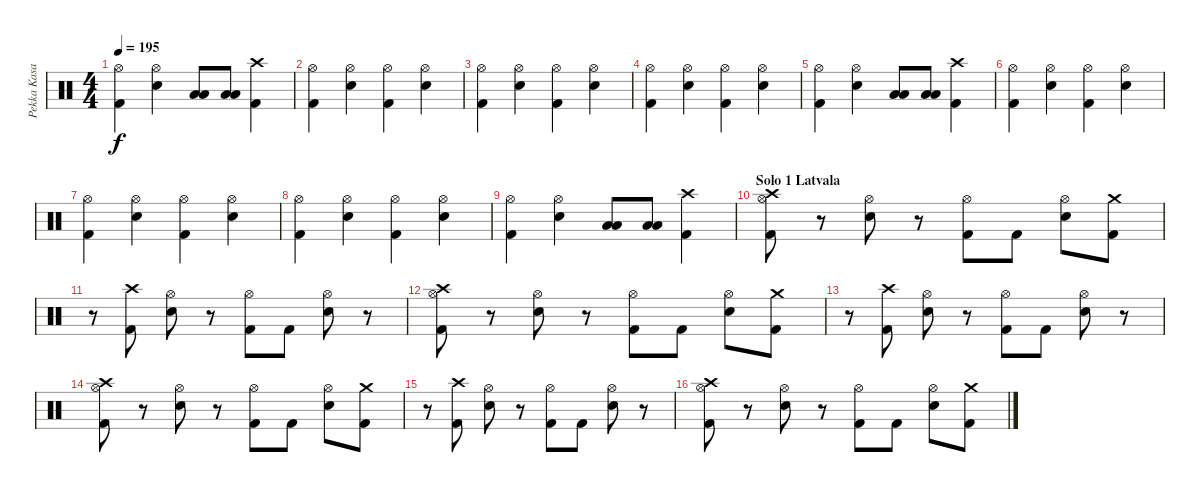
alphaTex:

\track ("Pekka Kasari" "Pekka Kasa") {instrument percussion}
\staff {score}
\articulation defaults
\ts (4 4)
\tempo 195
\clef neutral
\ks c
("Kick (hit) 2" "Hi-Hat (open)").4{dy f} ("Hi-Hat (open)" "Snare (hit) 2").4 ("Low Tom (hit)" "Low Floor Tom (hit)").8 ("Low Tom (hit)" "Low Floor Tom (hit)").8 ("Crash high (hit)" "Kick (hit) 2").4 |
("Kick (hit) 2" "Hi-Hat (open)").4 ("Hi-Hat (open)" "Snare (hit) 2").4 ("Hi-Hat (open)" "Kick (hit) 2").4 ("Hi-Hat (open)" "Snare (hit) 2").4 |
("Kick (hit) 2" "Hi-Hat (open)").4 ("Hi-Hat (open)" "Snare (hit) 2").4 ("Hi-Hat (open)" "Kick (hit) 2").4 ("Hi-Hat (open)" "Snare (hit) 2").4 |
("Kick (hit) 2" "Hi-Hat (open)").4 ("Hi-Hat (open)" "Snare (hit) 2").4 ("Hi-Hat (open)" "Kick (hit) 2").4 ("Hi-Hat (open)" "Snare (hit) 2").4 |
("Kick (hit) 2" "Hi-Hat (open)").4 ("Hi-Hat (open)" "Snare (hit) 2").4 ("Low Tom (hit)" "Low Floor Tom (hit)").8 ("Low Tom (hit)" "Low Floor Tom (hit)").8 ("Crash high (hit)" "Kick (hit) 2").4 |
("Kick (hit) 2" "Hi-Hat (open)").4 ("Hi-Hat (open)" "Snare (hit) 2").4 ("Hi-Hat (open)" "Kick (hit) 2").4 ("Hi-Hat (open)" "Snare (hit) 2").4 |
("Kick (hit) 2" "Hi-Hat (open)").4 ("Hi-Hat (open)" "Snare (hit) 2").4 ("Hi-Hat (open)" "Kick (hit) 2").4 ("Hi-Hat (open)" "Snare (hit) 2").4 |
("Kick (hit) 2" "Hi-Hat (open)").4 ("Hi-Hat (open)" "Snare (hit) 2").4 ("Hi-Hat (open)" "Kick (hit) 2").4 ("Hi-Hat (open)" "Snare (hit) 2").4 |
("Kick (hit) 2" "Hi-Hat (open)").4 ("Hi-Hat (open)" "Snare (hit) 2").4 ("Low Tom (hit)" "Low Floor Tom (hit)").8 ("Low Tom (hit)" "Low Floor Tom (hit)").8 ("Crash high (hit)" "Kick (hit) 2").4 |
\section ("" "Solo 1 Latvala")
("Kick (hit) 2" "Crash high (hit)" "Hi-Hat (open)").8 r.8 ("Snare (hit) 2" "Hi-Hat (open)").8 r.8 ("Kick (hit) 2" "Hi-Hat (open)").8 "Kick (hit) 2".8 ("Snare (hit) 2" "Hi-Hat (open)").8 ("Kick (hit) 2" "Crash medium (hit)").8 |
r.8 ("Kick (hit) 2" "Crash high (hit)").8 ("Snare (hit) 2" "Hi-Hat (open)").8 r.8 ("Kick (hit) 2" "Hi-Hat (open)").8 "Kick (hit) 2".8 ("Snare (hit) 2" "Hi-Hat (open)").8 r.8 |
("Kick (hit) 2" "Crash high (hit)" "Hi-Hat (open)").8 r.8 ("Snare (hit) 2" "Hi-Hat (open)").8 r.8 ("Kick (hit) 2" "Hi-Hat (open)").8 "Kick (hit) 2".8 ("Snare (hit) 2" "Hi-Hat (open)").8 ("Kick (hit) 2" "Crash medium (hit)").8 |
r.8 ("Kick (hit) 2" "Crash high (hit)").8 ("Snare (hit) 2" "Hi-Hat (open)").8 r.8 ("Kick (hit) 2" "Hi-Hat (open)").8 "Kick (hit) 2".8 ("Snare (hit) 2" "Hi-Hat (open)").8 r.8 |
("Kick (hit) 2" "Crash high (hit)" "Hi-Hat (open)").8 r.8 ("Snare (hit) 2" "Hi-Hat (open)").8 r.8 ("Kick (hit) 2" "Hi-Hat (open)").8 "Kick (hit) 2".8 ("Snare (hit) 2" "Hi-Hat (open)").8 ("Kick (hit) 2" "Crash medium (hit)").8 |
r.8 ("Kick (hit) 2" "Crash high (hit)").8 ("Snare (hit) 2" "Hi-Hat (open)").8 r.8 ("Kick (hit) 2" "Hi-Hat (open)").8 "Kick (hit) 2".8 ("Snare (hit) 2" "Hi-Hat (open)").8 r.8 |
("Kick (hit) 2" "Crash high (hit)" "Hi-Hat (open)").8 r.8 ("Snare (hit) 2" "Hi-Hat (open)").8 r.8 ("Kick (hit) 2" "Hi-Hat (open)").8 "Kick (hit) 2".8 ("Snare (hit) 2" "Hi-Hat (open)").8 ("Kick (hit) 2" "Crash medium (hit)").8
